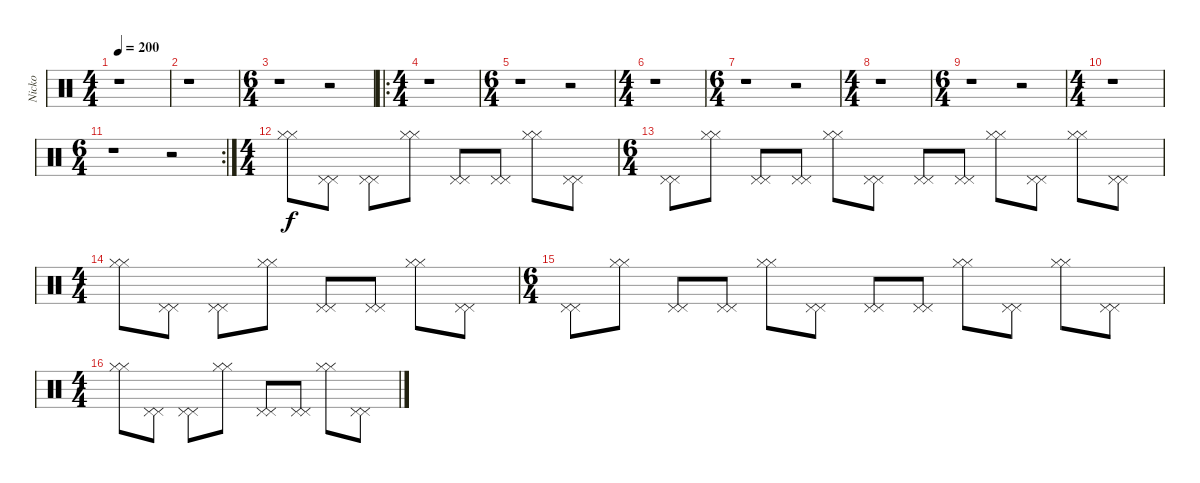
\track ("Nicko" "Nicko") {instrument percussion}
\staff {score}
\articulation defaults
\ts (4 4)
\tempo 200
\clef neutral
\ks c
r.1{dy f} |
r.1 |
\ts (6 4)
r.1 r.2 |
\ro
\ts (4 4)
r.1 |
\ts (6 4)
r.1 r.2 |
\ts (4 4)
r.1 |
\ts (6 4)
r.1 r.2 |
\ts (4 4)
r.1 |
\ts (6 4)
r.1 r.2 |
\ts (4 4)
r.1 |
\rc 2
\ts (6 4)
r.1 r.2 |
\ts (4 4)
("Hi-Hat (closed)" "Hi-Hat (closed)").8 ("Pedal Hi-Hat (hit)" "Pedal Hi-Hat (hit)").8 ("Pedal Hi-Hat (hit)" "Pedal Hi-Hat (hit)").8 ("Hi-Hat (closed)" "Hi-Hat (closed)").8 ("Pedal Hi-Hat (hit)" "Pedal Hi-Hat (hit)").8 ("Pedal Hi-Hat (hit)" "Pedal Hi-Hat (hit)").8 ("Hi-Hat (closed)" "Hi-Hat (closed)").8 ("Pedal Hi-Hat (hit)" "Pedal Hi-Hat (hit)").8 |
\ts (6 4)
("Pedal Hi-Hat (hit)" "Pedal Hi-Hat (hit)").8 ("Hi-Hat (closed)" "Hi-Hat (closed)").8 ("Pedal Hi-Hat (hit)" "Pedal Hi-Hat (hit)").8 ("Pedal Hi-Hat (hit)" "Pedal Hi-Hat (hit)").8 ("Hi-Hat (closed)" "Hi-Hat (closed)").8 ("Pedal Hi-Hat (hit)" "Pedal Hi-Hat (hit)").8 ("Pedal Hi-Hat (hit)" "Pedal Hi-Hat (hit)").8 ("Pedal Hi-Hat (hit)" "Pedal Hi-Hat (hit)").8 ("Hi-Hat (closed)" "Hi-Hat (closed)").8 ("Pedal Hi-Hat (hit)" "Pedal Hi-Hat (hit)").8 ("Hi-Hat (closed)" "Hi-Hat (closed)").8 ("Pedal Hi-Hat (hit)" "Pedal Hi-Hat (hit)").8 |
\ts (4 4)
("Hi-Hat (closed)" "Hi-Hat (closed)").8 ("Pedal Hi-Hat (hit)" "Pedal Hi-Hat (hit)").8 ("Pedal Hi-Hat (hit)" "Pedal Hi-Hat (hit)").8 ("Hi-Hat (closed)" "Hi-Hat (closed)").8 ("Pedal Hi-Hat (hit)" "Pedal Hi-Hat (hit)").8 ("Pedal Hi-Hat (hit)" "Pedal Hi-Hat (hit)").8 ("Hi-Hat (closed)" "Hi-Hat (closed)").8 ("Pedal Hi-Hat (hit)" "Pedal Hi-Hat (hit)").8 |
\ts (6 4)
("Pedal Hi-Hat (hit)" "Pedal Hi-Hat (hit)").8 ("Hi-Hat (closed)" "Hi-Hat (closed)").8 ("Pedal Hi-Hat (hit)" "Pedal Hi-Hat (hit)").8 ("Pedal Hi-Hat (hit)" "Pedal Hi-Hat (hit)").8 ("Hi-Hat (closed)" "Hi-Hat (closed)").8 ("Pedal Hi-Hat (hit)" "Pedal Hi-Hat (hit)").8 ("Pedal Hi-Hat (hit)" "Pedal Hi-Hat (hit)").8 ("Pedal Hi-Hat (hit)" "Pedal Hi-Hat (hit)").8 ("Hi-Hat (closed)" "Hi-Hat (closed)").8 ("Pedal Hi-Hat (hit)" "Pedal Hi-Hat (hit)").8 ("Hi-Hat (closed)" "Hi-Hat (closed)").8 ("Pedal Hi-Hat (hit)" "Pedal Hi-Hat (hit)").8 |
\ts (4 4)
("Hi-Hat (closed)" "Hi-Hat (closed)").8 ("Pedal Hi-Hat (hit)" "Pedal Hi-Hat (hit)").8 ("Pedal Hi-Hat (hit)" "Pedal Hi-Hat (hit)").8 ("Hi-Hat (closed)" "Hi-Hat (closed)").8 ("Pedal Hi-Hat (hit)" "Pedal Hi-Hat (hit)").8 ("Pedal Hi-Hat (hit)" "Pedal Hi-Hat (hit)").8 ("Hi-Hat (closed)" "Hi-Hat (closed)").8 ("Pedal Hi-Hat (hit)" "Pedal Hi-Hat (hit)").8
